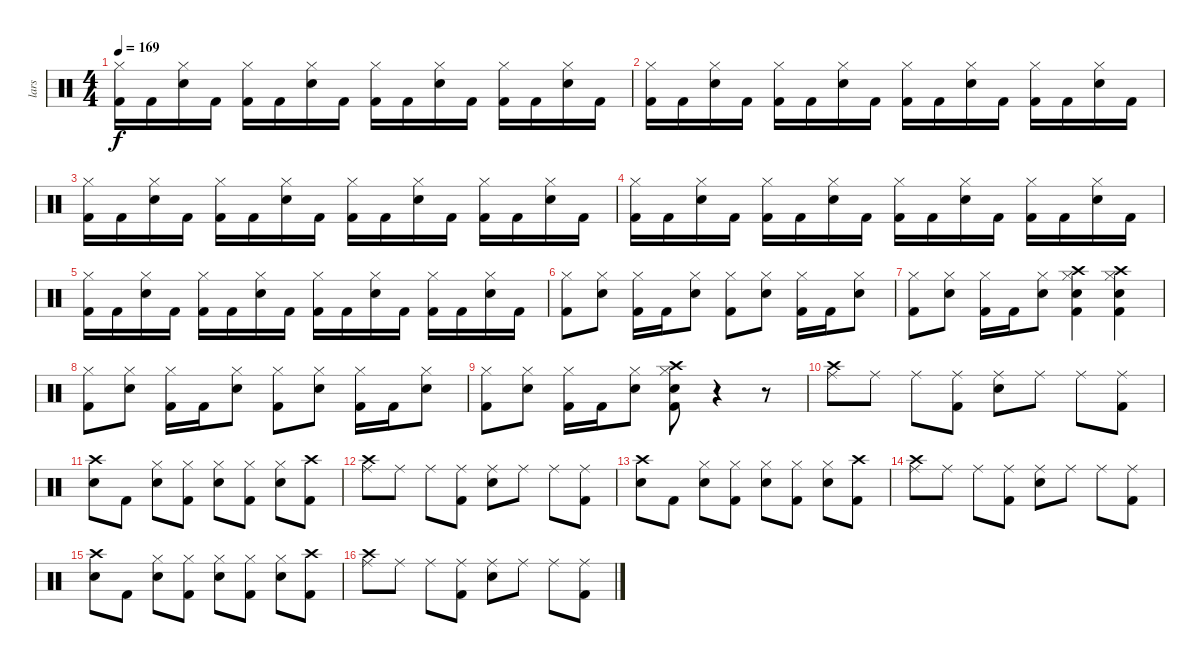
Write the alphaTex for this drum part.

\track ("lars" "lars") {instrument percussion}
\staff {score}
\articulation defaults
\ts (4 4)
\tempo 169
\clef neutral
\ks c
("Kick (hit) 2" "Hi-Hat (closed)").16{dy f} "Kick (hit) 2".16 ("Snare (hit) 2" "Hi-Hat (closed)").16 "Kick (hit) 2".16 ("Hi-Hat (closed)" "Kick (hit) 2").16 "Kick (hit) 2".16 ("Snare (hit) 2" "Hi-Hat (closed)").16 "Kick (hit) 2".16 ("Kick (hit) 2" "Hi-Hat (closed)").16 "Kick (hit) 2".16 ("Snare (hit) 2" "Hi-Hat (closed)").16 "Kick (hit) 2".16 ("Hi-Hat (closed)" "Kick (hit) 2").16 "Kick (hit) 2".16 ("Snare (hit) 2" "Hi-Hat (closed)").16 "Kick (hit) 2".16 |
("Kick (hit) 2" "Hi-Hat (closed)").16 "Kick (hit) 2".16 ("Snare (hit) 2" "Hi-Hat (closed)").16 "Kick (hit) 2".16 ("Hi-Hat (closed)" "Kick (hit) 2").16 "Kick (hit) 2".16 ("Snare (hit) 2" "Hi-Hat (closed)").16 "Kick (hit) 2".16 ("Kick (hit) 2" "Hi-Hat (closed)").16 "Kick (hit) 2".16 ("Snare (hit) 2" "Hi-Hat (closed)").16 "Kick (hit) 2".16 ("Hi-Hat (closed)" "Kick (hit) 2").16 "Kick (hit) 2".16 ("Snare (hit) 2" "Hi-Hat (closed)").16 "Kick (hit) 2".16 |
("Kick (hit) 2" "Hi-Hat (closed)").16 "Kick (hit) 2".16 ("Snare (hit) 2" "Hi-Hat (closed)").16 "Kick (hit) 2".16 ("Hi-Hat (closed)" "Kick (hit) 2").16 "Kick (hit) 2".16 ("Snare (hit) 2" "Hi-Hat (closed)").16 "Kick (hit) 2".16 ("Kick (hit) 2" "Hi-Hat (closed)").16 "Kick (hit) 2".16 ("Snare (hit) 2" "Hi-Hat (closed)").16 "Kick (hit) 2".16 ("Hi-Hat (closed)" "Kick (hit) 2").16 "Kick (hit) 2".16 ("Snare (hit) 2" "Hi-Hat (closed)").16 "Kick (hit) 2".16 |
("Kick (hit) 2" "Hi-Hat (closed)").16 "Kick (hit) 2".16 ("Snare (hit) 2" "Hi-Hat (closed)").16 "Kick (hit) 2".16 ("Hi-Hat (closed)" "Kick (hit) 2").16 "Kick (hit) 2".16 ("Snare (hit) 2" "Hi-Hat (closed)").16 "Kick (hit) 2".16 ("Kick (hit) 2" "Hi-Hat (closed)").16 "Kick (hit) 2".16 ("Snare (hit) 2" "Hi-Hat (closed)").16 "Kick (hit) 2".16 ("Hi-Hat (closed)" "Kick (hit) 2").16 "Kick (hit) 2".16 ("Snare (hit) 2" "Hi-Hat (closed)").16 "Kick (hit) 2".16 |
("Kick (hit) 2" "Hi-Hat (closed)").16 "Kick (hit) 2".16 ("Snare (hit) 2" "Hi-Hat (closed)").16 "Kick (hit) 2".16 ("Hi-Hat (closed)" "Kick (hit) 2").16 "Kick (hit) 2".16 ("Snare (hit) 2" "Hi-Hat (closed)").16 "Kick (hit) 2".16 ("Kick (hit) 2" "Hi-Hat (closed)").16 "Kick (hit) 2".16 ("Snare (hit) 2" "Hi-Hat (closed)").16 "Kick (hit) 2".16 ("Hi-Hat (closed)" "Kick (hit) 2").16 "Kick (hit) 2".16 ("Snare (hit) 2" "Hi-Hat (closed)").16 "Kick (hit) 2".16 |
("Kick (hit) 2" "Hi-Hat (closed)").8 ("Snare (hit) 2" "Hi-Hat (closed)").8 ("Kick (hit) 2" "Hi-Hat (closed)").16 "Kick (hit) 2".16 ("Snare (hit) 2" "Hi-Hat (closed)").8 ("Kick (hit) 2" "Hi-Hat (closed)").8 ("Snare (hit) 2" "Hi-Hat (closed)").8 ("Kick (hit) 2" "Hi-Hat (closed)").16 "Kick (hit) 2".16 ("Snare (hit) 2" "Hi-Hat (closed)").8 |
("Kick (hit) 2" "Hi-Hat (closed)").8 ("Snare (hit) 2" "Hi-Hat (closed)").8 ("Kick (hit) 2" "Hi-Hat (closed)").16 "Kick (hit) 2".16 ("Snare (hit) 2" "Hi-Hat (closed)").8 ("Kick (hit) 2" "Snare (hit) 2" "Hi-Hat (closed)" "Crash high (hit)").4 ("Kick (hit) 2" "Snare (hit) 2" "Hi-Hat (closed)" "Crash high (hit)").4 |
("Kick (hit) 2" "Hi-Hat (closed)").8 ("Snare (hit) 2" "Hi-Hat (closed)").8 ("Kick (hit) 2" "Hi-Hat (closed)").16 "Kick (hit) 2".16 ("Snare (hit) 2" "Hi-Hat (closed)").8 ("Kick (hit) 2" "Hi-Hat (closed)").8 ("Snare (hit) 2" "Hi-Hat (closed)").8 ("Kick (hit) 2" "Hi-Hat (closed)").16 "Kick (hit) 2".16 ("Snare (hit) 2" "Hi-Hat (closed)").8 |
("Kick (hit) 2" "Hi-Hat (closed)").8 ("Snare (hit) 2" "Hi-Hat (closed)").8 ("Kick (hit) 2" "Hi-Hat (closed)").16 "Kick (hit) 2".16 ("Snare (hit) 2" "Hi-Hat (closed)").8 ("Kick (hit) 2" "Snare (hit) 2" "Hi-Hat (closed)" "Crash high (hit)").8 r.4 r.8 |
("Crash high (hit)" "Ride (middle)").8 "Ride (middle)".8 "Ride (middle)".8 ("Ride (middle)" "Kick (hit) 2").8 ("Snare (hit) 2" "Ride (middle)").8 "Ride (middle)".8 "Ride (middle)".8 ("Ride (middle)" "Kick (hit) 2").8 |
("Snare (hit) 2" "Crash high (hit)").8 "Kick (hit) 2".8 ("Snare (hit) 2" "Hi-Hat (closed)").8 ("Kick (hit) 2" "Hi-Hat (closed)").8 ("Snare (hit) 2" "Hi-Hat (closed)").8 ("Kick (hit) 2" "Hi-Hat (closed)").8 ("Snare (hit) 2" "Hi-Hat (closed)").8 ("Kick (hit) 2" "Crash high (hit)").8 |
("Crash high (hit)" "Ride (middle)").8 "Ride (middle)".8 "Ride (middle)".8 ("Ride (middle)" "Kick (hit) 2").8 ("Snare (hit) 2" "Ride (middle)").8 "Ride (middle)".8 "Ride (middle)".8 ("Ride (middle)" "Kick (hit) 2").8 |
("Snare (hit) 2" "Crash high (hit)").8 "Kick (hit) 2".8 ("Snare (hit) 2" "Hi-Hat (closed)").8 ("Kick (hit) 2" "Hi-Hat (closed)").8 ("Snare (hit) 2" "Hi-Hat (closed)").8 ("Kick (hit) 2" "Hi-Hat (closed)").8 ("Snare (hit) 2" "Hi-Hat (closed)").8 ("Kick (hit) 2" "Crash high (hit)").8 |
("Crash high (hit)" "Ride (middle)").8 "Ride (middle)".8 "Ride (middle)".8 ("Ride (middle)" "Kick (hit) 2").8 ("Snare (hit) 2" "Ride (middle)").8 "Ride (middle)".8 "Ride (middle)".8 ("Ride (middle)" "Kick (hit) 2").8 |
("Snare (hit) 2" "Crash high (hit)").8 "Kick (hit) 2".8 ("Snare (hit) 2" "Hi-Hat (closed)").8 ("Kick (hit) 2" "Hi-Hat (closed)").8 ("Snare (hit) 2" "Hi-Hat (closed)").8 ("Kick (hit) 2" "Hi-Hat (closed)").8 ("Snare (hit) 2" "Hi-Hat (closed)").8 ("Kick (hit) 2" "Crash high (hit)").8 |
("Crash high (hit)" "Ride (middle)").8 "Ride (middle)".8 "Ride (middle)".8 ("Ride (middle)" "Kick (hit) 2").8 ("Snare (hit) 2" "Ride (middle)").8 "Ride (middle)".8 "Ride (middle)".8 ("Ride (middle)" "Kick (hit) 2").8
